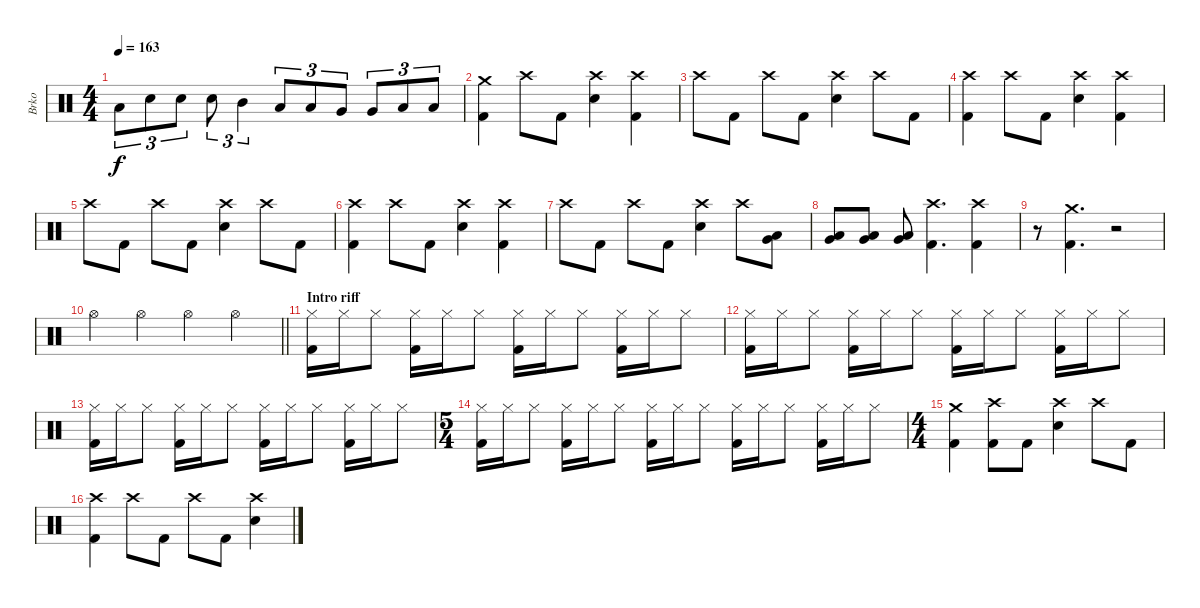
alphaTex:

\track ("Brko" "Brko") {instrument percussion}
\staff {score}
\articulation defaults
\ts (4 4)
\tempo 163
\clef neutral
\ks c "Low Tom (hit)".8{tu (3 2) dy f} "Electric Snare (hit)".8{tu (3 2)} "Electric Snare (hit)".8{tu (3 2)} "Electric Snare (hit)".8{tu (3 2)} "Mid Tom (hit)".4{tu (3 2)} "Low Tom (hit)".8{tu (3 2)} "Low Tom (hit)".8{tu (3 2)} "Very Low Tom (hit)".8{tu (3 2)} "Very Low Tom (hit)".8{tu (3 2)} "Low Floor Tom (hit)".8{tu (3 2)} "Low Floor Tom (hit)".8{tu (3 2)}
|
("Crash medium (hit)" "Kick (hit) 2").4 "Crash high (hit)".8 "Kick (hit) 2".8 ("Crash high (hit)" "Electric Snare (hit)").4 ("Crash high (hit)" "Kick (hit) 2").4 |
"Crash high (hit)".8 "Kick (hit) 2".8 "Crash high (hit)".8 "Kick (hit) 2".8 ("Crash high (hit)" "Electric Snare (hit)").4 "Crash high (hit)".8 "Kick (hit) 2".8 |
("Crash high (hit)" "Kick (hit) 2").4 "Crash high (hit)".8 "Kick (hit) 2".8 ("Crash high (hit)" "Electric Snare (hit)").4 ("Crash high (hit)" "Kick (hit) 2").4 |
"Crash high (hit)".8 "Kick (hit) 2".8 "Crash high (hit)".8 "Kick (hit) 2".8 ("Crash high (hit)" "Electric Snare (hit)").4 "Crash high (hit)".8 "Kick (hit) 2".8 |
("Crash high (hit)" "Kick (hit) 2").4 "Crash high (hit)".8 "Kick (hit) 2".8 ("Crash high (hit)" "Electric Snare (hit)").4 ("Crash high (hit)" "Kick (hit) 2").4 |
"Crash high (hit)".8 "Kick (hit) 2".8 "Crash high (hit)".8 "Kick (hit) 2".8 ("Crash high (hit)" "Electric Snare (hit)").4 "Crash high (hit)".8 ("Low Tom (hit)" "Very Low Tom (hit)").8 |
("Low Tom (hit)" "Very Low Tom (hit)").8 ("Low Tom (hit)" "Very Low Tom (hit)").8 ("Low Tom (hit)" "Very Low Tom (hit)").8 ("Crash high (hit)" "Kick (hit) 2").4{d} ("Crash high (hit)" "Kick (hit) 2").4 |
r.8 ("Crash medium (hit)" "Kick (hit) 2").4{d} r.2 |
\barLineRight lightlight "Hi-Hat (open)".4 "Hi-Hat (open)".4 "Hi-Hat (open)".4 "Hi-Hat (open)".4
|
\section ("" "Intro riff")
("Hi-Hat (closed)" "Kick (hit) 2").16 "Hi-Hat (closed)".16 "Hi-Hat (closed)".8 ("Hi-Hat (closed)" "Kick (hit) 2").16 "Hi-Hat (closed)".16 "Hi-Hat (closed)".8 ("Hi-Hat (closed)" "Kick (hit) 2").16 "Hi-Hat (closed)".16 "Hi-Hat (closed)".8 ("Hi-Hat (closed)" "Kick (hit) 2").16 "Hi-Hat (closed)".16 "Hi-Hat (closed)".8 |
("Hi-Hat (closed)" "Kick (hit) 2").16 "Hi-Hat (closed)".16 "Hi-Hat (closed)".8 ("Hi-Hat (closed)" "Kick (hit) 2").16 "Hi-Hat (closed)".16 "Hi-Hat (closed)".8 ("Hi-Hat (closed)" "Kick (hit) 2").16 "Hi-Hat (closed)".16 "Hi-Hat (closed)".8 ("Hi-Hat (closed)" "Kick (hit) 2").16 "Hi-Hat (closed)".16 "Hi-Hat (closed)".8 |
("Hi-Hat (closed)" "Kick (hit) 2").16 "Hi-Hat (closed)".16 "Hi-Hat (closed)".8 ("Hi-Hat (closed)" "Kick (hit) 2").16 "Hi-Hat (closed)".16 "Hi-Hat (closed)".8 ("Hi-Hat (closed)" "Kick (hit) 2").16 "Hi-Hat (closed)".16 "Hi-Hat (closed)".8 ("Hi-Hat (closed)" "Kick (hit) 2").16 "Hi-Hat (closed)".16 "Hi-Hat (closed)".8 |
\ts (5 4)
("Hi-Hat (closed)" "Kick (hit) 2").16 "Hi-Hat (closed)".16 "Hi-Hat (closed)".8 ("Hi-Hat (closed)" "Kick (hit) 2").16 "Hi-Hat (closed)".16 "Hi-Hat (closed)".8 ("Hi-Hat (closed)" "Kick (hit) 2").16 "Hi-Hat (closed)".16 "Hi-Hat (closed)".8 ("Hi-Hat (closed)" "Kick (hit) 2").16 "Hi-Hat (closed)".16 "Hi-Hat (closed)".8 ("Hi-Hat (closed)" "Kick (hit) 2").16 "Hi-Hat (closed)".16 "Hi-Hat (closed)".8 |
\ts (4 4)
("Crash medium (hit)" "Kick (hit) 2").4 ("Crash high (hit)" "Kick (hit) 2").8 "Kick (hit) 2".8 ("Crash high (hit)" "Electric Snare (hit)").4 "Crash high (hit)".8 "Kick (hit) 2".8 |
("Crash high (hit)" "Kick (hit) 2").4 "Crash high (hit)".8 "Kick (hit) 2".8 "Crash high (hit)".8 "Kick (hit) 2".8 ("Crash high (hit)" "Electric Snare (hit)").4
